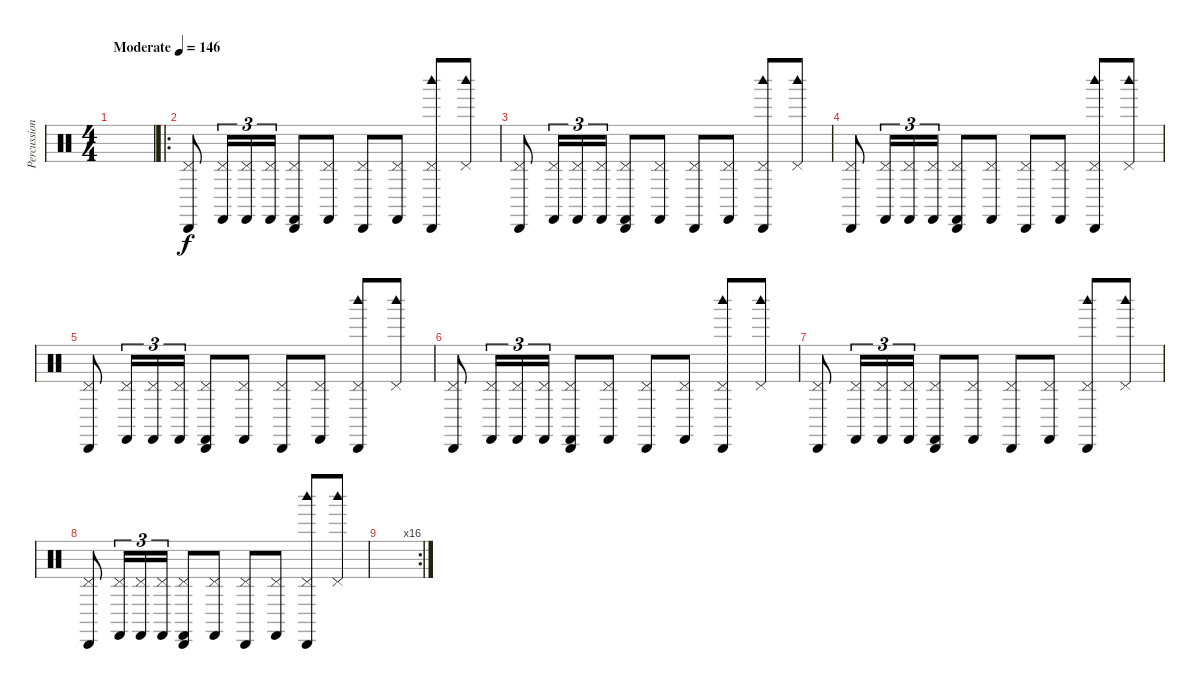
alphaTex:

\track ("Percussion" "Percussion") {instrument percussion}
\staff {score}
\articulation defaults
\ts (4 4)
\tempo (146 "Moderate")
\clef neutral
\ks c
|
\ro
("Cabasa (hit)" "Pedal Hi-Hat (hit)").8 ("Pedal Hi-Hat (hit)" "Castanets (hit)").16{tu (3 2)} ("Pedal Hi-Hat (hit)" "Castanets (hit)").16{tu (3 2)} ("Pedal Hi-Hat (hit)" "Castanets (hit)").16{tu (3 2)} ("Cabasa (hit)" "Pedal Hi-Hat (hit)" "Castanets (hit)").8 ("Pedal Hi-Hat (hit)" "Castanets (hit)").8 ("Cabasa (hit)" "Pedal Hi-Hat (hit)").8 ("Pedal Hi-Hat (hit)" "Castanets (hit)").8 ("Cabasa (hit)" "Pedal Hi-Hat (hit)" "Woodblock high (hit)").8 ("Pedal Hi-Hat (hit)" "Woodblock high (hit)").8 |
("Cabasa (hit)" "Pedal Hi-Hat (hit)").8 ("Pedal Hi-Hat (hit)" "Castanets (hit)").16{tu (3 2)} ("Pedal Hi-Hat (hit)" "Castanets (hit)").16{tu (3 2)} ("Pedal Hi-Hat (hit)" "Castanets (hit)").16{tu (3 2)} ("Cabasa (hit)" "Pedal Hi-Hat (hit)" "Castanets (hit)").8 ("Pedal Hi-Hat (hit)" "Castanets (hit)").8 ("Cabasa (hit)" "Pedal Hi-Hat (hit)").8 ("Pedal Hi-Hat (hit)" "Castanets (hit)").8 ("Cabasa (hit)" "Pedal Hi-Hat (hit)" "Woodblock high (hit)").8 ("Pedal Hi-Hat (hit)" "Woodblock high (hit)").8 |
("Cabasa (hit)" "Pedal Hi-Hat (hit)").8 ("Pedal Hi-Hat (hit)" "Castanets (hit)").16{tu (3 2)} ("Pedal Hi-Hat (hit)" "Castanets (hit)").16{tu (3 2)} ("Pedal Hi-Hat (hit)" "Castanets (hit)").16{tu (3 2)} ("Cabasa (hit)" "Pedal Hi-Hat (hit)" "Castanets (hit)").8 ("Pedal Hi-Hat (hit)" "Castanets (hit)").8 ("Cabasa (hit)" "Pedal Hi-Hat (hit)").8 ("Pedal Hi-Hat (hit)" "Castanets (hit)").8 ("Cabasa (hit)" "Pedal Hi-Hat (hit)" "Woodblock high (hit)").8 ("Pedal Hi-Hat (hit)" "Woodblock high (hit)").8 |
("Cabasa (hit)" "Pedal Hi-Hat (hit)").8 ("Pedal Hi-Hat (hit)" "Castanets (hit)").16{tu (3 2)} ("Pedal Hi-Hat (hit)" "Castanets (hit)").16{tu (3 2)} ("Pedal Hi-Hat (hit)" "Castanets (hit)").16{tu (3 2)} ("Cabasa (hit)" "Pedal Hi-Hat (hit)" "Castanets (hit)").8 ("Pedal Hi-Hat (hit)" "Castanets (hit)").8 ("Cabasa (hit)" "Pedal Hi-Hat (hit)").8 ("Pedal Hi-Hat (hit)" "Castanets (hit)").8 ("Cabasa (hit)" "Pedal Hi-Hat (hit)" "Woodblock high (hit)").8 ("Pedal Hi-Hat (hit)" "Woodblock high (hit)").8 |
("Cabasa (hit)" "Pedal Hi-Hat (hit)").8 ("Pedal Hi-Hat (hit)" "Castanets (hit)").16{tu (3 2)} ("Pedal Hi-Hat (hit)" "Castanets (hit)").16{tu (3 2)} ("Pedal Hi-Hat (hit)" "Castanets (hit)").16{tu (3 2)} ("Cabasa (hit)" "Pedal Hi-Hat (hit)" "Castanets (hit)").8 ("Pedal Hi-Hat (hit)" "Castanets (hit)").8 ("Cabasa (hit)" "Pedal Hi-Hat (hit)").8 ("Pedal Hi-Hat (hit)" "Castanets (hit)").8 ("Cabasa (hit)" "Pedal Hi-Hat (hit)" "Woodblock high (hit)").8 ("Pedal Hi-Hat (hit)" "Woodblock high (hit)").8 |
("Cabasa (hit)" "Pedal Hi-Hat (hit)").8 ("Pedal Hi-Hat (hit)" "Castanets (hit)").16{tu (3 2)} ("Pedal Hi-Hat (hit)" "Castanets (hit)").16{tu (3 2)} ("Pedal Hi-Hat (hit)" "Castanets (hit)").16{tu (3 2)} ("Cabasa (hit)" "Pedal Hi-Hat (hit)" "Castanets (hit)").8 ("Pedal Hi-Hat (hit)" "Castanets (hit)").8 ("Cabasa (hit)" "Pedal Hi-Hat (hit)").8 ("Pedal Hi-Hat (hit)" "Castanets (hit)").8 ("Cabasa (hit)" "Pedal Hi-Hat (hit)" "Woodblock high (hit)").8 ("Pedal Hi-Hat (hit)" "Woodblock high (hit)").8 |
("Cabasa (hit)" "Pedal Hi-Hat (hit)").8 ("Pedal Hi-Hat (hit)" "Castanets (hit)").16{tu (3 2)} ("Pedal Hi-Hat (hit)" "Castanets (hit)").16{tu (3 2)} ("Pedal Hi-Hat (hit)" "Castanets (hit)").16{tu (3 2)} ("Cabasa (hit)" "Pedal Hi-Hat (hit)" "Castanets (hit)").8 ("Pedal Hi-Hat (hit)" "Castanets (hit)").8 ("Cabasa (hit)" "Pedal Hi-Hat (hit)").8 ("Pedal Hi-Hat (hit)" "Castanets (hit)").8 ("Cabasa (hit)" "Pedal Hi-Hat (hit)" "Woodblock high (hit)").8 ("Pedal Hi-Hat (hit)" "Woodblock high (hit)").8 |
\rc 16
